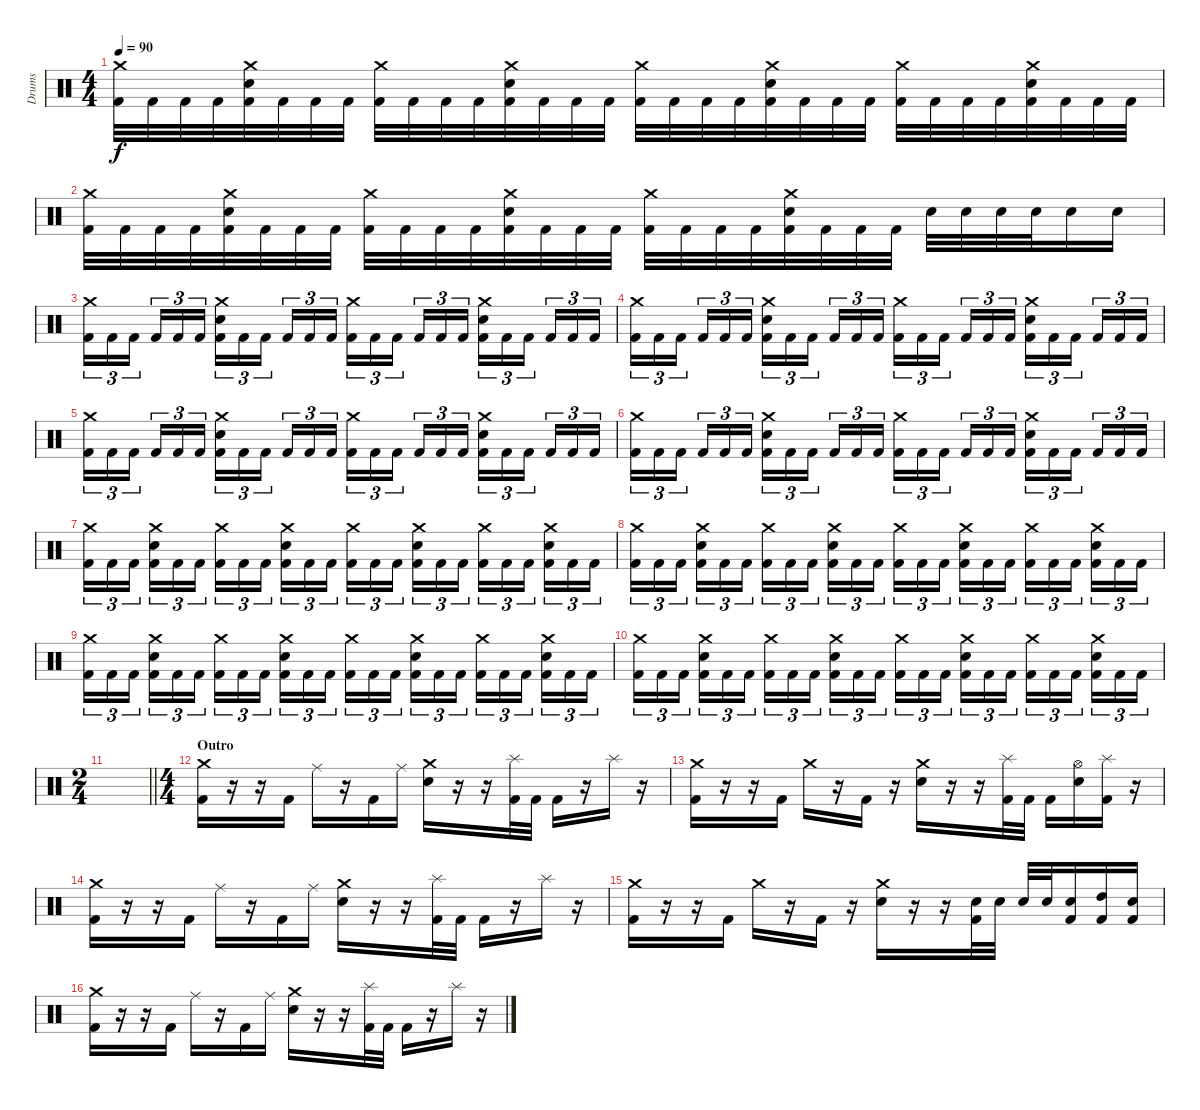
\track ("Drums" "Drums") {instrument percussion}
\staff {score}
\articulation defaults
\ts (4 4)
\tempo 90
\clef neutral
\ks c
("Crash medium (hit)" "Kick (hit) 2").32{dy f} "Kick (hit) 2".32 "Kick (hit) 2".32 "Kick (hit) 2".32 ("Crash medium (hit)" "Electric Snare (hit)" "Kick (hit) 2").32 "Kick (hit) 2".32 "Kick (hit) 2".32 "Kick (hit) 2".32 ("Crash medium (hit)" "Kick (hit) 2").32 "Kick (hit) 2".32 "Kick (hit) 2".32 "Kick (hit) 2".32 ("Crash medium (hit)" "Electric Snare (hit)" "Kick (hit) 2").32 "Kick (hit) 2".32 "Kick (hit) 2".32 "Kick (hit) 2".32 ("Crash medium (hit)" "Kick (hit) 2").32 "Kick (hit) 2".32 "Kick (hit) 2".32 "Kick (hit) 2".32 ("Crash medium (hit)" "Electric Snare (hit)" "Kick (hit) 2").32 "Kick (hit) 2".32 "Kick (hit) 2".32 "Kick (hit) 2".32 ("Crash medium (hit)" "Kick (hit) 2").32 "Kick (hit) 2".32 "Kick (hit) 2".32 "Kick (hit) 2".32 ("Crash medium (hit)" "Electric Snare (hit)" "Kick (hit) 2").32 "Kick (hit) 2".32 "Kick (hit) 2".32 "Kick (hit) 2".32 |
("Crash medium (hit)" "Kick (hit) 2").32 "Kick (hit) 2".32 "Kick (hit) 2".32 "Kick (hit) 2".32 ("Crash medium (hit)" "Electric Snare (hit)" "Kick (hit) 2").32 "Kick (hit) 2".32 "Kick (hit) 2".32 "Kick (hit) 2".32 ("Crash medium (hit)" "Kick (hit) 2").32 "Kick (hit) 2".32 "Kick (hit) 2".32 "Kick (hit) 2".32 ("Crash medium (hit)" "Electric Snare (hit)" "Kick (hit) 2").32 "Kick (hit) 2".32 "Kick (hit) 2".32 "Kick (hit) 2".32 ("Crash medium (hit)" "Kick (hit) 2").32 "Kick (hit) 2".32 "Kick (hit) 2".32 "Kick (hit) 2".32 ("Crash medium (hit)" "Electric Snare (hit)" "Kick (hit) 2").32 "Kick (hit) 2".32 "Kick (hit) 2".32 "Kick (hit) 2".32 "Electric Snare (hit)".32 "Electric Snare (hit)".32 "Electric Snare (hit)".32 "Electric Snare (hit)".32 "Electric Snare (hit)".16 "Electric Snare (hit)".16 |
("Crash medium (hit)" "Kick (hit) 2").16{tu (3 2)} "Kick (hit) 2".16{tu (3 2)} "Kick (hit) 2".16{tu (3 2)} "Kick (hit) 2".16{tu (3 2)} "Kick (hit) 2".16{tu (3 2)} "Kick (hit) 2".16{tu (3 2)} ("Crash medium (hit)" "Electric Snare (hit)" "Kick (hit) 2").16{tu (3 2)} "Kick (hit) 2".16{tu (3 2)} "Kick (hit) 2".16{tu (3 2)} "Kick (hit) 2".16{tu (3 2)} "Kick (hit) 2".16{tu (3 2)} "Kick (hit) 2".16{tu (3 2)} ("Crash medium (hit)" "Kick (hit) 2").16{tu (3 2)} "Kick (hit) 2".16{tu (3 2)} "Kick (hit) 2".16{tu (3 2)} "Kick (hit) 2".16{tu (3 2)} "Kick (hit) 2".16{tu (3 2)} "Kick (hit) 2".16{tu (3 2)} ("Crash medium (hit)" "Electric Snare (hit)" "Kick (hit) 2").16{tu (3 2)} "Kick (hit) 2".16{tu (3 2)} "Kick (hit) 2".16{tu (3 2)} "Kick (hit) 2".16{tu (3 2)} "Kick (hit) 2".16{tu (3 2)} "Kick (hit) 2".16{tu (3 2)} |
("Crash medium (hit)" "Kick (hit) 2").16{tu (3 2)} "Kick (hit) 2".16{tu (3 2)} "Kick (hit) 2".16{tu (3 2)} "Kick (hit) 2".16{tu (3 2)} "Kick (hit) 2".16{tu (3 2)} "Kick (hit) 2".16{tu (3 2)} ("Crash medium (hit)" "Electric Snare (hit)" "Kick (hit) 2").16{tu (3 2)} "Kick (hit) 2".16{tu (3 2)} "Kick (hit) 2".16{tu (3 2)} "Kick (hit) 2".16{tu (3 2)} "Kick (hit) 2".16{tu (3 2)} "Kick (hit) 2".16{tu (3 2)} ("Crash medium (hit)" "Kick (hit) 2").16{tu (3 2)} "Kick (hit) 2".16{tu (3 2)} "Kick (hit) 2".16{tu (3 2)} "Kick (hit) 2".16{tu (3 2)} "Kick (hit) 2".16{tu (3 2)} "Kick (hit) 2".16{tu (3 2)} ("Crash medium (hit)" "Electric Snare (hit)" "Kick (hit) 2").16{tu (3 2)} "Kick (hit) 2".16{tu (3 2)} "Kick (hit) 2".16{tu (3 2)} "Kick (hit) 2".16{tu (3 2)} "Kick (hit) 2".16{tu (3 2)} "Kick (hit) 2".16{tu (3 2)} |
("Crash medium (hit)" "Kick (hit) 2").16{tu (3 2)} "Kick (hit) 2".16{tu (3 2)} "Kick (hit) 2".16{tu (3 2)} "Kick (hit) 2".16{tu (3 2)} "Kick (hit) 2".16{tu (3 2)} "Kick (hit) 2".16{tu (3 2)} ("Crash medium (hit)" "Electric Snare (hit)" "Kick (hit) 2").16{tu (3 2)} "Kick (hit) 2".16{tu (3 2)} "Kick (hit) 2".16{tu (3 2)} "Kick (hit) 2".16{tu (3 2)} "Kick (hit) 2".16{tu (3 2)} "Kick (hit) 2".16{tu (3 2)} ("Crash medium (hit)" "Kick (hit) 2").16{tu (3 2)} "Kick (hit) 2".16{tu (3 2)} "Kick (hit) 2".16{tu (3 2)} "Kick (hit) 2".16{tu (3 2)} "Kick (hit) 2".16{tu (3 2)} "Kick (hit) 2".16{tu (3 2)} ("Crash medium (hit)" "Electric Snare (hit)" "Kick (hit) 2").16{tu (3 2)} "Kick (hit) 2".16{tu (3 2)} "Kick (hit) 2".16{tu (3 2)} "Kick (hit) 2".16{tu (3 2)} "Kick (hit) 2".16{tu (3 2)} "Kick (hit) 2".16{tu (3 2)} |
("Crash medium (hit)" "Kick (hit) 2").16{tu (3 2)} "Kick (hit) 2".16{tu (3 2)} "Kick (hit) 2".16{tu (3 2)} "Kick (hit) 2".16{tu (3 2)} "Kick (hit) 2".16{tu (3 2)} "Kick (hit) 2".16{tu (3 2)} ("Crash medium (hit)" "Electric Snare (hit)" "Kick (hit) 2").16{tu (3 2)} "Kick (hit) 2".16{tu (3 2)} "Kick (hit) 2".16{tu (3 2)} "Kick (hit) 2".16{tu (3 2)} "Kick (hit) 2".16{tu (3 2)} "Kick (hit) 2".16{tu (3 2)} ("Crash medium (hit)" "Kick (hit) 2").16{tu (3 2)} "Kick (hit) 2".16{tu (3 2)} "Kick (hit) 2".16{tu (3 2)} "Kick (hit) 2".16{tu (3 2)} "Kick (hit) 2".16{tu (3 2)} "Kick (hit) 2".16{tu (3 2)} ("Crash medium (hit)" "Electric Snare (hit)" "Kick (hit) 2").16{tu (3 2)} "Kick (hit) 2".16{tu (3 2)} "Kick (hit) 2".16{tu (3 2)} "Kick (hit) 2".16{tu (3 2)} "Kick (hit) 2".16{tu (3 2)} "Kick (hit) 2".16{tu (3 2)} |
("Crash medium (hit)" "Kick (hit) 2").16{tu (3 2)} "Kick (hit) 2".16{tu (3 2)} "Kick (hit) 2".16{tu (3 2)} ("Crash medium (hit)" "Electric Snare (hit)" "Kick (hit) 2").16{tu (3 2)} "Kick (hit) 2".16{tu (3 2)} "Kick (hit) 2".16{tu (3 2)} ("Crash medium (hit)" "Kick (hit) 2").16{tu (3 2)} "Kick (hit) 2".16{tu (3 2)} "Kick (hit) 2".16{tu (3 2)} ("Crash medium (hit)" "Electric Snare (hit)" "Kick (hit) 2").16{tu (3 2)} "Kick (hit) 2".16{tu (3 2)} "Kick (hit) 2".16{tu (3 2)} ("Crash medium (hit)" "Kick (hit) 2").16{tu (3 2)} "Kick (hit) 2".16{tu (3 2)} "Kick (hit) 2".16{tu (3 2)} ("Crash medium (hit)" "Electric Snare (hit)" "Kick (hit) 2").16{tu (3 2)} "Kick (hit) 2".16{tu (3 2)} "Kick (hit) 2".16{tu (3 2)} ("Crash medium (hit)" "Kick (hit) 2").16{tu (3 2)} "Kick (hit) 2".16{tu (3 2)} "Kick (hit) 2".16{tu (3 2)} ("Crash medium (hit)" "Electric Snare (hit)" "Kick (hit) 2").16{tu (3 2)} "Kick (hit) 2".16{tu (3 2)} "Kick (hit) 2".16{tu (3 2)} |
("Crash medium (hit)" "Kick (hit) 2").16{tu (3 2)} "Kick (hit) 2".16{tu (3 2)} "Kick (hit) 2".16{tu (3 2)} ("Crash medium (hit)" "Electric Snare (hit)" "Kick (hit) 2").16{tu (3 2)} "Kick (hit) 2".16{tu (3 2)} "Kick (hit) 2".16{tu (3 2)} ("Crash medium (hit)" "Kick (hit) 2").16{tu (3 2)} "Kick (hit) 2".16{tu (3 2)} "Kick (hit) 2".16{tu (3 2)} ("Crash medium (hit)" "Electric Snare (hit)" "Kick (hit) 2").16{tu (3 2)} "Kick (hit) 2".16{tu (3 2)} "Kick (hit) 2".16{tu (3 2)} ("Crash medium (hit)" "Kick (hit) 2").16{tu (3 2)} "Kick (hit) 2".16{tu (3 2)} "Kick (hit) 2".16{tu (3 2)} ("Crash medium (hit)" "Electric Snare (hit)" "Kick (hit) 2").16{tu (3 2)} "Kick (hit) 2".16{tu (3 2)} "Kick (hit) 2".16{tu (3 2)} ("Crash medium (hit)" "Kick (hit) 2").16{tu (3 2)} "Kick (hit) 2".16{tu (3 2)} "Kick (hit) 2".16{tu (3 2)} ("Crash medium (hit)" "Electric Snare (hit)" "Kick (hit) 2").16{tu (3 2)} "Kick (hit) 2".16{tu (3 2)} "Kick (hit) 2".16{tu (3 2)} |
("Crash medium (hit)" "Kick (hit) 2").16{tu (3 2)} "Kick (hit) 2".16{tu (3 2)} "Kick (hit) 2".16{tu (3 2)} ("Crash medium (hit)" "Electric Snare (hit)" "Kick (hit) 2").16{tu (3 2)} "Kick (hit) 2".16{tu (3 2)} "Kick (hit) 2".16{tu (3 2)} ("Crash medium (hit)" "Kick (hit) 2").16{tu (3 2)} "Kick (hit) 2".16{tu (3 2)} "Kick (hit) 2".16{tu (3 2)} ("Crash medium (hit)" "Electric Snare (hit)" "Kick (hit) 2").16{tu (3 2)} "Kick (hit) 2".16{tu (3 2)} "Kick (hit) 2".16{tu (3 2)} ("Crash medium (hit)" "Kick (hit) 2").16{tu (3 2)} "Kick (hit) 2".16{tu (3 2)} "Kick (hit) 2".16{tu (3 2)} ("Crash medium (hit)" "Electric Snare (hit)" "Kick (hit) 2").16{tu (3 2)} "Kick (hit) 2".16{tu (3 2)} "Kick (hit) 2".16{tu (3 2)} ("Crash medium (hit)" "Kick (hit) 2").16{tu (3 2)} "Kick (hit) 2".16{tu (3 2)} "Kick (hit) 2".16{tu (3 2)} ("Crash medium (hit)" "Electric Snare (hit)" "Kick (hit) 2").16{tu (3 2)} "Kick (hit) 2".16{tu (3 2)} "Kick (hit) 2".16{tu (3 2)} |
("Crash medium (hit)" "Kick (hit) 2").16{tu (3 2)} "Kick (hit) 2".16{tu (3 2)} "Kick (hit) 2".16{tu (3 2)} ("Crash medium (hit)" "Electric Snare (hit)" "Kick (hit) 2").16{tu (3 2)} "Kick (hit) 2".16{tu (3 2)} "Kick (hit) 2".16{tu (3 2)} ("Crash medium (hit)" "Kick (hit) 2").16{tu (3 2)} "Kick (hit) 2".16{tu (3 2)} "Kick (hit) 2".16{tu (3 2)} ("Crash medium (hit)" "Electric Snare (hit)" "Kick (hit) 2").16{tu (3 2)} "Kick (hit) 2".16{tu (3 2)} "Kick (hit) 2".16{tu (3 2)} ("Crash medium (hit)" "Kick (hit) 2").16{tu (3 2)} "Kick (hit) 2".16{tu (3 2)} "Kick (hit) 2".16{tu (3 2)} ("Crash medium (hit)" "Electric Snare (hit)" "Kick (hit) 2").16{tu (3 2)} "Kick (hit) 2".16{tu (3 2)} "Kick (hit) 2".16{tu (3 2)} ("Crash medium (hit)" "Kick (hit) 2").16{tu (3 2)} "Kick (hit) 2".16{tu (3 2)} "Kick (hit) 2".16{tu (3 2)} ("Crash medium (hit)" "Electric Snare (hit)" "Kick (hit) 2").16{tu (3 2)} "Kick (hit) 2".16{tu (3 2)} "Kick (hit) 2".16{tu (3 2)} |
\ts (2 4)
\barLineRight lightlight
|
\ts (4 4)
\section ("" "Outro")
("Crash medium (hit)" "Kick (hit) 2").16 r.16 r.16 "Kick (hit) 2".16 "Ride (middle)".16 r.16 "Kick (hit) 2".16 "Ride (middle)".16 ("Crash medium (hit)" "Electric Snare (hit)").16 r.16 r.16 ("Splash (hit)" "Kick (hit) 2").32 "Kick (hit) 2".32 "Kick (hit) 2".16 r.16 "Splash (hit)".16 r.16 |
("Crash medium (hit)" "Kick (hit) 2").16 r.16 r.16 "Kick (hit) 2".16 "Crash medium (hit)".16 r.16 "Kick (hit) 2".16 r.16 ("Crash medium (hit)" "Electric Snare (hit)").16 r.16 r.16 ("Splash (hit)" "Kick (hit) 2").32 "Kick (hit) 2".32 "Kick (hit) 2".16 ("Hi-Hat (open)" "Electric Snare (hit)").16 ("Splash (hit)" "Kick (hit) 2").16 r.16 |
("Crash medium (hit)" "Kick (hit) 2").16 r.16 r.16 "Kick (hit) 2".16 "Ride (middle)".16 r.16 "Kick (hit) 2".16 "Ride (middle)".16 ("Crash medium (hit)" "Electric Snare (hit)").16 r.16 r.16 ("Splash (hit)" "Kick (hit) 2").32 "Kick (hit) 2".32 "Kick (hit) 2".16 r.16 "Splash (hit)".16 r.16 |
("Crash medium (hit)" "Kick (hit) 2").16 r.16 r.16 "Kick (hit) 2".16 "Crash medium (hit)".16 r.16 "Kick (hit) 2".16 r.16 ("Crash medium (hit)" "Electric Snare (hit)").16 r.16 r.16 ("Electric Snare (hit)" "Kick (hit) 2").32 "Electric Snare (hit)".32 "Electric Snare (hit)".32 "Electric Snare (hit)".32 ("Electric Snare (hit)" "Kick (hit) 2").16 ("High Tom (hit)" "Kick (hit) 2").16 ("Electric Snare (hit)" "Kick (hit) 2").16 |
("Crash medium (hit)" "Kick (hit) 2").16 r.16 r.16 "Kick (hit) 2".16 "Ride (middle)".16 r.16 "Kick (hit) 2".16 "Ride (middle)".16 ("Crash medium (hit)" "Electric Snare (hit)").16 r.16 r.16 ("Splash (hit)" "Kick (hit) 2").32 "Kick (hit) 2".32 "Kick (hit) 2".16 r.16 "Splash (hit)".16 r.16
